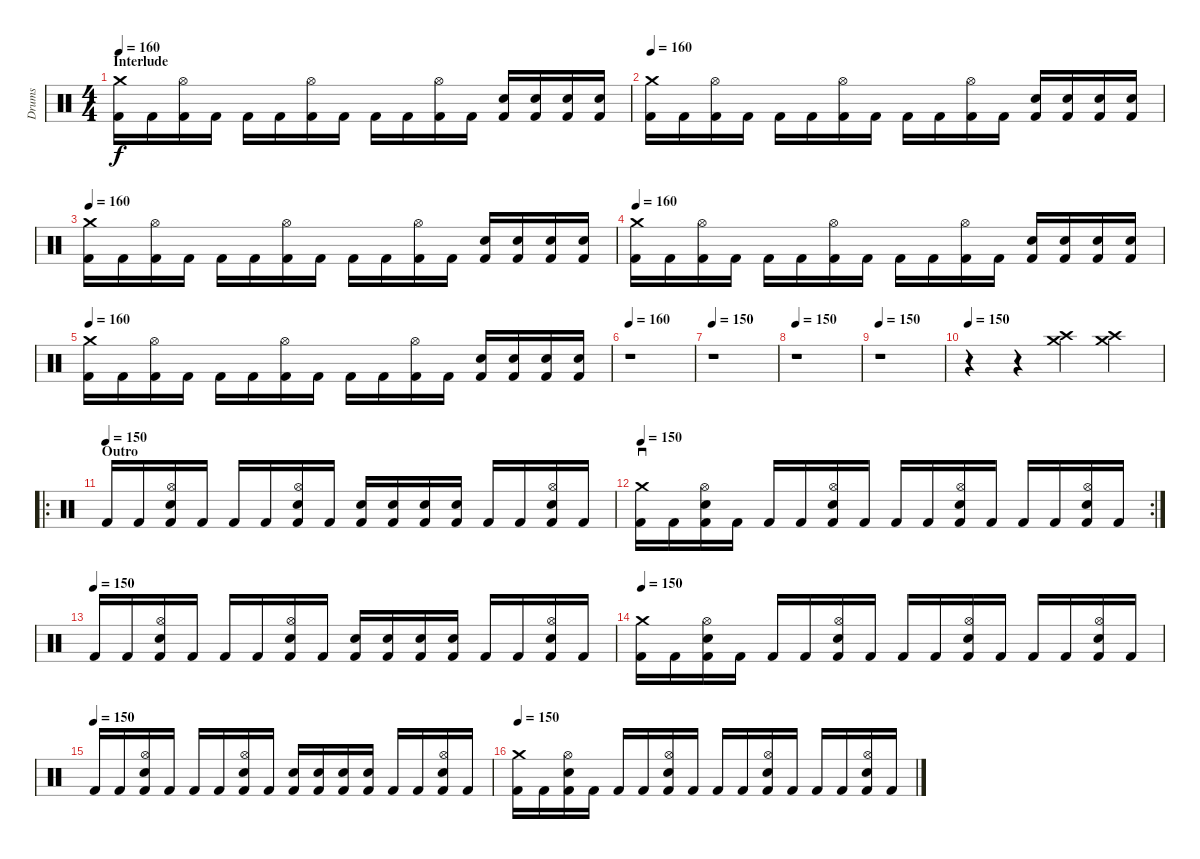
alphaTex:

\track ("Drums" "Drums") {instrument percussion}
\staff {score}
\articulation defaults
\ts (4 4)
\section ("" "Interlude")
\tempo 160
\clef neutral
\ks c
("Crash medium (hit)" "Kick (hit) 2").16{dy f} "Kick (hit) 2".16 ("Hi-Hat (open)" "Kick (hit) 2").16 "Kick (hit) 2".16 "Kick (hit) 2".16 "Kick (hit) 2".16 ("Hi-Hat (open)" "Kick (hit) 2").16 "Kick (hit) 2".16 "Kick (hit) 2".16 "Kick (hit) 2".16 ("Hi-Hat (open)" "Kick (hit) 2").16 "Kick (hit) 2".16 ("Electric Snare (hit)" "Kick (hit) 2").16 ("Electric Snare (hit)" "Kick (hit) 2").16 ("Electric Snare (hit)" "Kick (hit) 2").16 ("Electric Snare (hit)" "Kick (hit) 2").16 |
\tempo 160
("Crash medium (hit)" "Kick (hit) 2").16 "Kick (hit) 2".16 ("Hi-Hat (open)" "Kick (hit) 2").16 "Kick (hit) 2".16 "Kick (hit) 2".16 "Kick (hit) 2".16 ("Hi-Hat (open)" "Kick (hit) 2").16 "Kick (hit) 2".16 "Kick (hit) 2".16 "Kick (hit) 2".16 ("Hi-Hat (open)" "Kick (hit) 2").16 "Kick (hit) 2".16 ("Snare (hit) 2" "Kick (hit) 2").16 ("Snare (hit) 2" "Kick (hit) 2").16 ("Snare (hit) 2" "Kick (hit) 2").16 ("Snare (hit) 2" "Kick (hit) 2").16 |
\tempo 160
("Crash medium (hit)" "Kick (hit) 2").16 "Kick (hit) 2".16 ("Hi-Hat (open)" "Kick (hit) 2").16 "Kick (hit) 2".16 "Kick (hit) 2".16 "Kick (hit) 2".16 ("Hi-Hat (open)" "Kick (hit) 2").16 "Kick (hit) 2".16 "Kick (hit) 2".16 "Kick (hit) 2".16 ("Hi-Hat (open)" "Kick (hit) 2").16 "Kick (hit) 2".16 ("Electric Snare (hit)" "Kick (hit) 2").16 ("Electric Snare (hit)" "Kick (hit) 2").16 ("Electric Snare (hit)" "Kick (hit) 2").16 ("Electric Snare (hit)" "Kick (hit) 2").16 |
\tempo 160
("Crash medium (hit)" "Kick (hit) 2").16 "Kick (hit) 2".16 ("Hi-Hat (open)" "Kick (hit) 2").16 "Kick (hit) 2".16 "Kick (hit) 2".16 "Kick (hit) 2".16 ("Hi-Hat (open)" "Kick (hit) 2").16 "Kick (hit) 2".16 "Kick (hit) 2".16 "Kick (hit) 2".16 ("Hi-Hat (open)" "Kick (hit) 2").16 "Kick (hit) 2".16 ("Snare (hit) 2" "Kick (hit) 2").16 ("Snare (hit) 2" "Kick (hit) 2").16 ("Snare (hit) 2" "Kick (hit) 2").16 ("Snare (hit) 2" "Kick (hit) 2").16 |
\tempo 160
("Crash medium (hit)" "Kick (hit) 2").16 "Kick (hit) 2".16 ("Hi-Hat (open)" "Kick (hit) 2").16 "Kick (hit) 2".16 "Kick (hit) 2".16 "Kick (hit) 2".16 ("Hi-Hat (open)" "Kick (hit) 2").16 "Kick (hit) 2".16 "Kick (hit) 2".16 "Kick (hit) 2".16 ("Hi-Hat (open)" "Kick (hit) 2").16 "Kick (hit) 2".16 ("Electric Snare (hit)" "Kick (hit) 2").16 ("Electric Snare (hit)" "Kick (hit) 2").16 ("Electric Snare (hit)" "Kick (hit) 2").16 ("Electric Snare (hit)" "Kick (hit) 2").16 |
\tempo 160
r.1 |
\tempo 150
r.1 |
\tempo 150
r.1 |
\tempo 150
r.1 |
\tempo 150
r.4 r.4 ("Crash medium (hit)" "Crash high (hit)").4 ("Crash medium (hit)" "Crash high (hit)").4 |
\ro
\section ("" "Outro")
\tempo (150)
"Kick (hit) 2".16 "Kick (hit) 2".16 ("Snare (hit) 2" "Hi-Hat (open)" "Kick (hit) 2").16 "Kick (hit) 2".16 "Kick (hit) 2".16 "Kick (hit) 2".16 ("Snare (hit) 2" "Hi-Hat (open)" "Kick (hit) 2").16 "Kick (hit) 2".16 ("Electric Snare (hit)" "Kick (hit) 2").16 ("Electric Snare (hit)" "Kick (hit) 2").16 ("Electric Snare (hit)" "Kick (hit) 2").16 ("Electric Snare (hit)" "Kick (hit) 2").16 "Kick (hit) 2".16 "Kick (hit) 2".16 ("Snare (hit) 2" "Hi-Hat (open)" "Kick (hit) 2").16 "Kick (hit) 2".16 |
\rc 2
\tempo 150
("Crash medium (hit)" "Kick (hit) 2").16{sd} "Kick (hit) 2".16 ("Snare (hit) 2" "Hi-Hat (open)" "Kick (hit) 2").16 "Kick (hit) 2".16 "Kick (hit) 2".16 "Kick (hit) 2".16 ("Snare (hit) 2" "Hi-Hat (open)" "Kick (hit) 2").16 "Kick (hit) 2".16 "Kick (hit) 2".16 "Kick (hit) 2".16 ("Snare (hit) 2" "Hi-Hat (open)" "Kick (hit) 2").16 "Kick (hit) 2".16 "Kick (hit) 2".16 "Kick (hit) 2".16 ("Snare (hit) 2" "Hi-Hat (open)" "Kick (hit) 2").16 "Kick (hit) 2".16 |
\tempo (150)
"Kick (hit) 2".16 "Kick (hit) 2".16 ("Snare (hit) 2" "Hi-Hat (open)" "Kick (hit) 2").16 "Kick (hit) 2".16 "Kick (hit) 2".16 "Kick (hit) 2".16 ("Snare (hit) 2" "Hi-Hat (open)" "Kick (hit) 2").16 "Kick (hit) 2".16 ("Electric Snare (hit)" "Kick (hit) 2").16 ("Electric Snare (hit)" "Kick (hit) 2").16 ("Electric Snare (hit)" "Kick (hit) 2").16 ("Electric Snare (hit)" "Kick (hit) 2").16 "Kick (hit) 2".16 "Kick (hit) 2".16 ("Snare (hit) 2" "Hi-Hat (open)" "Kick (hit) 2").16 "Kick (hit) 2".16 |
\tempo 150
("Crash medium (hit)" "Kick (hit) 2").16 "Kick (hit) 2".16 ("Snare (hit) 2" "Hi-Hat (open)" "Kick (hit) 2").16 "Kick (hit) 2".16 "Kick (hit) 2".16 "Kick (hit) 2".16 ("Snare (hit) 2" "Hi-Hat (open)" "Kick (hit) 2").16 "Kick (hit) 2".16 "Kick (hit) 2".16 "Kick (hit) 2".16 ("Snare (hit) 2" "Hi-Hat (open)" "Kick (hit) 2").16 "Kick (hit) 2".16 "Kick (hit) 2".16 "Kick (hit) 2".16 ("Snare (hit) 2" "Hi-Hat (open)" "Kick (hit) 2").16 "Kick (hit) 2".16 |
\tempo (150)
"Kick (hit) 2".16 "Kick (hit) 2".16 ("Snare (hit) 2" "Hi-Hat (open)" "Kick (hit) 2").16 "Kick (hit) 2".16 "Kick (hit) 2".16 "Kick (hit) 2".16 ("Snare (hit) 2" "Hi-Hat (open)" "Kick (hit) 2").16 "Kick (hit) 2".16 ("Electric Snare (hit)" "Kick (hit) 2").16 ("Electric Snare (hit)" "Kick (hit) 2").16 ("Electric Snare (hit)" "Kick (hit) 2").16 ("Electric Snare (hit)" "Kick (hit) 2").16 "Kick (hit) 2".16 "Kick (hit) 2".16 ("Snare (hit) 2" "Hi-Hat (open)" "Kick (hit) 2").16 "Kick (hit) 2".16 |
\tempo 150
("Crash medium (hit)" "Kick (hit) 2").16 "Kick (hit) 2".16 ("Snare (hit) 2" "Hi-Hat (open)" "Kick (hit) 2").16 "Kick (hit) 2".16 "Kick (hit) 2".16 "Kick (hit) 2".16 ("Snare (hit) 2" "Hi-Hat (open)" "Kick (hit) 2").16 "Kick (hit) 2".16 "Kick (hit) 2".16 "Kick (hit) 2".16 ("Snare (hit) 2" "Hi-Hat (open)" "Kick (hit) 2").16 "Kick (hit) 2".16 "Kick (hit) 2".16 "Kick (hit) 2".16 ("Snare (hit) 2" "Hi-Hat (open)" "Kick (hit) 2").16 "Kick (hit) 2".16
